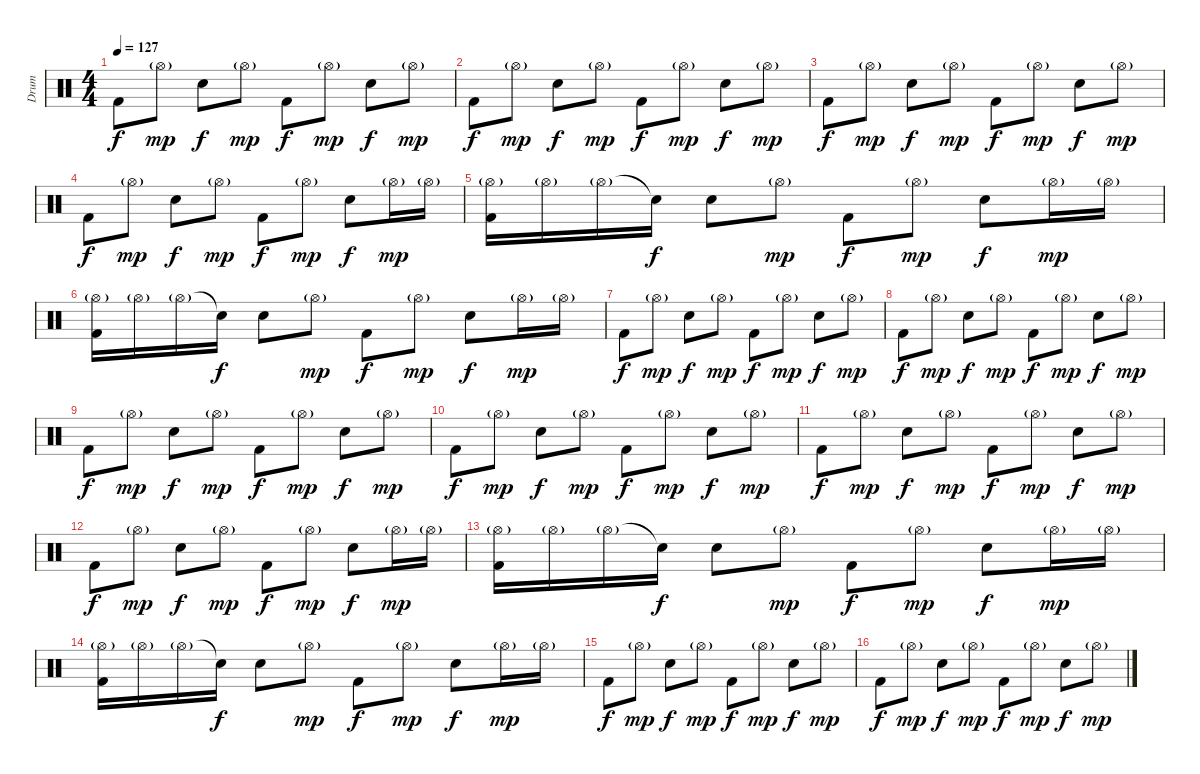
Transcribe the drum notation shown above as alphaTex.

\track ("Drum" "Drum") {instrument percussion}
\staff {score}
\articulation defaults
\ts (4 4)
\tempo 127
\clef neutral
\ks c "Kick (hit) 2".8{dy f} "Hi-Hat (open)"{g}.8{dy mp} "Electric Snare (hit)".8{dy f} "Hi-Hat (open)"{g}.8{dy mp} "Kick (hit) 2".8{dy f} "Hi-Hat (open)"{g}.8{dy mp} "Electric Snare (hit)".8{dy f} "Hi-Hat (open)"{g}.8{dy mp}
|
"Kick (hit) 2".8{dy f} "Hi-Hat (open)"{g}.8{dy mp} "Electric Snare (hit)".8{dy f} "Hi-Hat (open)"{g}.8{dy mp} "Kick (hit) 2".8{dy f} "Hi-Hat (open)"{g}.8{dy mp} "Electric Snare (hit)".8{dy f} "Hi-Hat (open)"{g}.8{dy mp} |
"Kick (hit) 2".8{dy f} "Hi-Hat (open)"{g}.8{dy mp} "Electric Snare (hit)".8{dy f} "Hi-Hat (open)"{g}.8{dy mp} "Kick (hit) 2".8{dy f} "Hi-Hat (open)"{g}.8{dy mp} "Electric Snare (hit)".8{dy f} "Hi-Hat (open)"{g}.8{dy mp} |
"Kick (hit) 2".8{dy f} "Hi-Hat (open)"{g}.8{dy mp} "Electric Snare (hit)".8{dy f} "Hi-Hat (open)"{g}.8{dy mp} "Kick (hit) 2".8{dy f} "Hi-Hat (open)"{g}.8{dy mp} "Electric Snare (hit)".8{dy f} "Hi-Hat (open)"{g}.16{dy mp} "Hi-Hat (open)"{g}.16 |
("Kick (hit) 2" "Hi-Hat (open)"{g}).16 "Hi-Hat (open)"{g}.16 "Hi-Hat (open)"{g}.16 "Snare (hit)"{t}.16{dy f} "Electric Snare (hit)".8 "Hi-Hat (open)"{g}.8{dy mp} "Kick (hit) 2".8{dy f} "Hi-Hat (open)"{g}.8{dy mp} "Electric Snare (hit)".8{dy f} "Hi-Hat (open)"{g}.16{dy mp} "Hi-Hat (open)"{g}.16 |
("Kick (hit) 2" "Hi-Hat (open)"{g}).16 "Hi-Hat (open)"{g}.16 "Hi-Hat (open)"{g}.16 "Snare (hit)"{t}.16{dy f} "Electric Snare (hit)".8 "Hi-Hat (open)"{g}.8{dy mp} "Kick (hit) 2".8{dy f} "Hi-Hat (open)"{g}.8{dy mp} "Electric Snare (hit)".8{dy f} "Hi-Hat (open)"{g}.16{dy mp} "Hi-Hat (open)"{g}.16 |
"Kick (hit) 2".8{dy f} "Hi-Hat (open)"{g}.8{dy mp} "Electric Snare (hit)".8{dy f} "Hi-Hat (open)"{g}.8{dy mp} "Kick (hit) 2".8{dy f} "Hi-Hat (open)"{g}.8{dy mp} "Electric Snare (hit)".8{dy f} "Hi-Hat (open)"{g}.8{dy mp} |
"Kick (hit) 2".8{dy f} "Hi-Hat (open)"{g}.8{dy mp} "Electric Snare (hit)".8{dy f} "Hi-Hat (open)"{g}.8{dy mp} "Kick (hit) 2".8{dy f} "Hi-Hat (open)"{g}.8{dy mp} "Electric Snare (hit)".8{dy f} "Hi-Hat (open)"{g}.8{dy mp} |
"Kick (hit) 2".8{dy f} "Hi-Hat (open)"{g}.8{dy mp} "Electric Snare (hit)".8{dy f} "Hi-Hat (open)"{g}.8{dy mp} "Kick (hit) 2".8{dy f} "Hi-Hat (open)"{g}.8{dy mp} "Electric Snare (hit)".8{dy f} "Hi-Hat (open)"{g}.8{dy mp} |
"Kick (hit) 2".8{dy f} "Hi-Hat (open)"{g}.8{dy mp} "Electric Snare (hit)".8{dy f} "Hi-Hat (open)"{g}.8{dy mp} "Kick (hit) 2".8{dy f} "Hi-Hat (open)"{g}.8{dy mp} "Electric Snare (hit)".8{dy f} "Hi-Hat (open)"{g}.8{dy mp} |
"Kick (hit) 2".8{dy f} "Hi-Hat (open)"{g}.8{dy mp} "Electric Snare (hit)".8{dy f} "Hi-Hat (open)"{g}.8{dy mp} "Kick (hit) 2".8{dy f} "Hi-Hat (open)"{g}.8{dy mp} "Electric Snare (hit)".8{dy f} "Hi-Hat (open)"{g}.8{dy mp} |
"Kick (hit) 2".8{dy f} "Hi-Hat (open)"{g}.8{dy mp} "Electric Snare (hit)".8{dy f} "Hi-Hat (open)"{g}.8{dy mp} "Kick (hit) 2".8{dy f} "Hi-Hat (open)"{g}.8{dy mp} "Electric Snare (hit)".8{dy f} "Hi-Hat (open)"{g}.16{dy mp} "Hi-Hat (open)"{g}.16 |
("Kick (hit) 2" "Hi-Hat (open)"{g}).16 "Hi-Hat (open)"{g}.16 "Hi-Hat (open)"{g}.16 "Snare (hit)"{t}.16{dy f} "Electric Snare (hit)".8 "Hi-Hat (open)"{g}.8{dy mp} "Kick (hit) 2".8{dy f} "Hi-Hat (open)"{g}.8{dy mp} "Electric Snare (hit)".8{dy f} "Hi-Hat (open)"{g}.16{dy mp} "Hi-Hat (open)"{g}.16 |
("Kick (hit) 2" "Hi-Hat (open)"{g}).16 "Hi-Hat (open)"{g}.16 "Hi-Hat (open)"{g}.16 "Snare (hit)"{t}.16{dy f} "Electric Snare (hit)".8 "Hi-Hat (open)"{g}.8{dy mp} "Kick (hit) 2".8{dy f} "Hi-Hat (open)"{g}.8{dy mp} "Electric Snare (hit)".8{dy f} "Hi-Hat (open)"{g}.16{dy mp} "Hi-Hat (open)"{g}.16 |
"Kick (hit) 2".8{dy f} "Hi-Hat (open)"{g}.8{dy mp} "Electric Snare (hit)".8{dy f} "Hi-Hat (open)"{g}.8{dy mp} "Kick (hit) 2".8{dy f} "Hi-Hat (open)"{g}.8{dy mp} "Electric Snare (hit)".8{dy f} "Hi-Hat (open)"{g}.8{dy mp} |
"Kick (hit) 2".8{dy f} "Hi-Hat (open)"{g}.8{dy mp} "Electric Snare (hit)".8{dy f} "Hi-Hat (open)"{g}.8{dy mp} "Kick (hit) 2".8{dy f} "Hi-Hat (open)"{g}.8{dy mp} "Electric Snare (hit)".8{dy f} "Hi-Hat (open)"{g}.8{dy mp}
